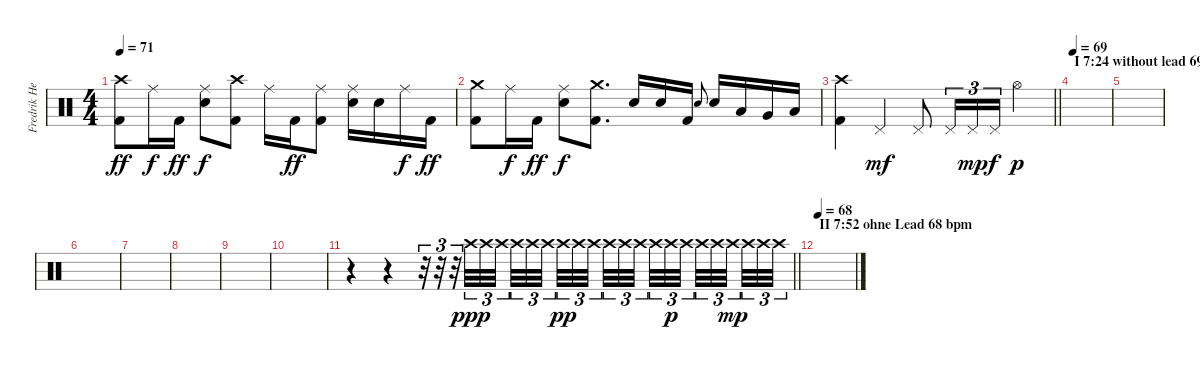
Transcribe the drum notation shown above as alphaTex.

\track ("Fredrik Hellerström (Drums)" "Fredrik He") {instrument percussion}
\staff
\articulation defaults
\ts (4 4)
\tempo 71
\clef neutral
\ks c
("Crash high (hit)" "Kick (hit) 2").8{dy ff} "Ride (middle)".16{dy f} "Kick (hit) 2".16{dy ff} ("Ride (middle)" "Electric Snare (hit)").8{dy f} ("Crash high (hit)" "Kick (hit) 2").8 "Ride (middle)".16 "Kick (hit) 2".16{dy ff} ("Ride (middle)" "Kick (hit) 2").8 ("Ride (middle)" "Electric Snare (hit)").16 "Electric Snare (hit)".16 "Ride (middle)".16{dy f} "Kick (hit) 2".16{dy ff} |
("Crash medium (hit)" "Kick (hit) 2").8 "Ride (middle)".16{dy f} "Kick (hit) 2".16{dy ff} ("Ride (middle)" "Electric Snare (hit)").8{dy f} ("Crash medium (hit)" "Kick (hit) 2").8{d} "Electric Snare (hit)".16 "Electric Snare (hit)".16 "Kick (hit) 2".16 "Electric Snare (hit)".8{gr onbeat} "Electric Snare (hit)".16 "Low Tom (hit)".16 "Very Low Tom (hit)".16 "Low Floor Tom (hit)".16 |
\barLineRight lightlight
("Crash high (hit)" "Kick (hit) 2").4 "Pedal Hi-Hat (hit)".4{dy mf} "Pedal Hi-Hat (hit)".8 "Pedal Hi-Hat (hit)".16{tu (3 2)} "Pedal Hi-Hat (hit)".16{tu (3 2) dy mp} "Pedal Hi-Hat (hit)".16{tu (3 2) dy f} "Hi-Hat (open)".4{dy p} |
\section ("" "I 7:24 without lead 69 bpm")
\tempo 69
|
|
|
|
|
|
|
\barLineRight lightlight
r.4 r.4 r.32{tu (3 2)} r.32{tu (3 2)} r.32{tu (3 2)} "Crash high (hit)".32{tu (3 2) dy ppp} "Crash high (hit)".32{tu (3 2)} "Crash high (hit)".32{tu (3 2) beam splitsecondary} "Crash high (hit)".32{tu (3 2)} "Crash high (hit)".32{tu (3 2)} "Crash high (hit)".32{tu (3 2) beam splitsecondary} "Crash high (hit)".32{tu (3 2) dy pp} "Crash high (hit)".32{tu (3 2)} "Crash high (hit)".32{tu (3 2)} "Crash high (hit)".32{tu (3 2)} "Crash high (hit)".32{tu (3 2)} "Crash high (hit)".32{tu (3 2) beam splitsecondary} "Crash high (hit)".32{tu (3 2)} "Crash high (hit)".32{tu (3 2) dy p} "Crash high (hit)".32{tu (3 2) beam splitsecondary} "Crash high (hit)".32{tu (3 2)} "Crash high (hit)".32{tu (3 2)} "Crash high (hit)".32{tu (3 2) dy mp beam splitsecondary} "Crash high (hit)".32{tu (3 2)} "Crash high (hit)".32{tu (3 2)} "Crash high (hit)".32{tu (3 2)} |
\section ("" "II 7:52 ohne Lead 68 bpm")
\tempo 68
